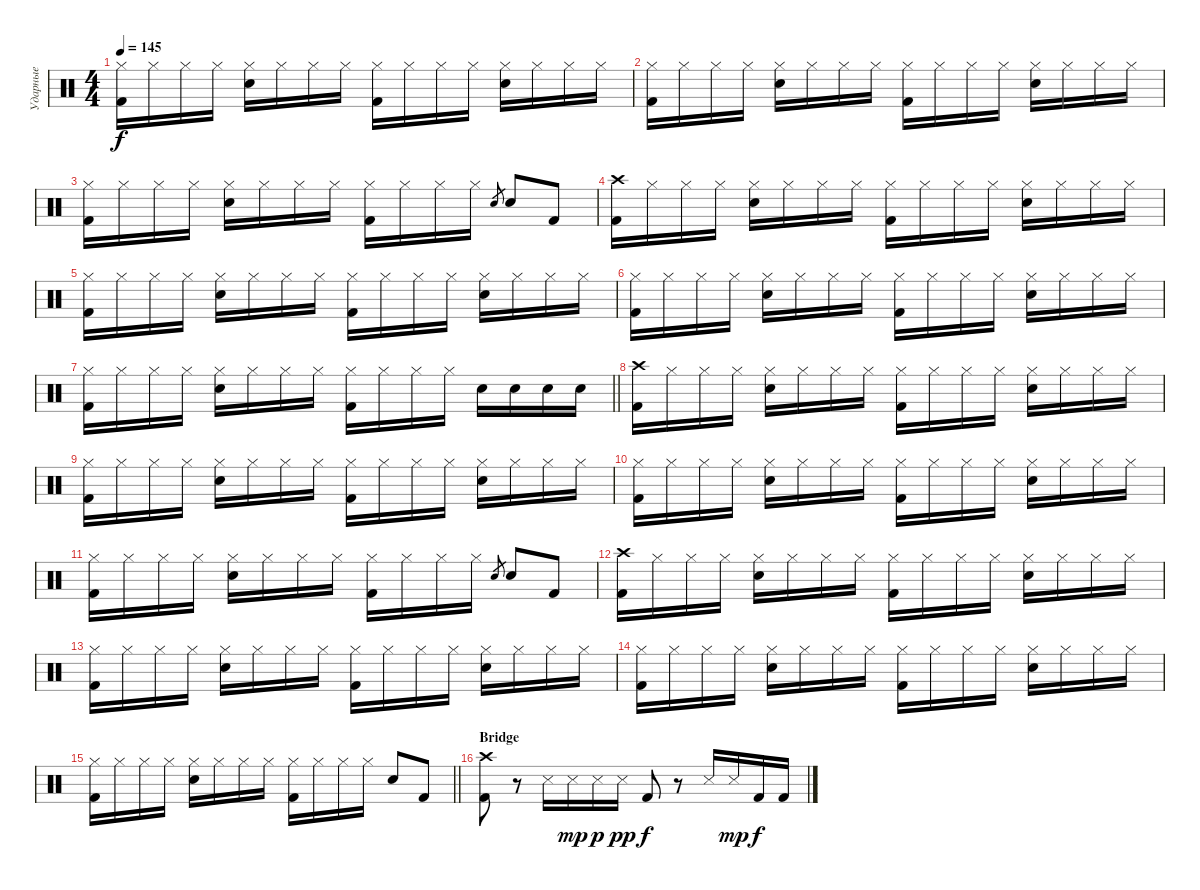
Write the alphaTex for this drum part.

\track ("Ударные" "Ударные") {instrument percussion}
\staff {score}
\articulation defaults
\ts (4 4)
\tempo 145
\clef neutral
\ks c
("Hi-Hat (closed)" "Kick (hit) 2").16{dy f} "Hi-Hat (closed)".16 "Hi-Hat (closed)".16 "Hi-Hat (closed)".16 ("Hi-Hat (closed)" "Electric Snare (hit)").16 "Hi-Hat (closed)".16 "Hi-Hat (closed)".16 "Hi-Hat (closed)".16 ("Hi-Hat (closed)" "Kick (hit) 2").16 "Hi-Hat (closed)".16 "Hi-Hat (closed)".16 "Hi-Hat (closed)".16 ("Hi-Hat (closed)" "Electric Snare (hit)").16 "Hi-Hat (closed)".16 "Hi-Hat (closed)".16 "Hi-Hat (closed)".16 |
("Hi-Hat (closed)" "Kick (hit) 2").16 "Hi-Hat (closed)".16 "Hi-Hat (closed)".16 "Hi-Hat (closed)".16 ("Hi-Hat (closed)" "Electric Snare (hit)").16 "Hi-Hat (closed)".16 "Hi-Hat (closed)".16 "Hi-Hat (closed)".16 ("Hi-Hat (closed)" "Kick (hit) 2").16 "Hi-Hat (closed)".16 "Hi-Hat (closed)".16 "Hi-Hat (closed)".16 ("Hi-Hat (closed)" "Electric Snare (hit)").16 "Hi-Hat (closed)".16 "Hi-Hat (closed)".16 "Hi-Hat (closed)".16 |
("Hi-Hat (closed)" "Kick (hit) 2").16 "Hi-Hat (closed)".16 "Hi-Hat (closed)".16 "Hi-Hat (closed)".16 ("Hi-Hat (closed)" "Electric Snare (hit)").16 "Hi-Hat (closed)".16 "Hi-Hat (closed)".16 "Hi-Hat (closed)".16 ("Hi-Hat (closed)" "Kick (hit) 2").16 "Hi-Hat (closed)".16 "Hi-Hat (closed)".16 "Hi-Hat (closed)".16 "Electric Snare (hit)".8{gr} "Electric Snare (hit)".8 "Kick (hit) 2".8 |
("Crash high (hit)" "Kick (hit) 2").16 "Hi-Hat (closed)".16 "Hi-Hat (closed)".16 "Hi-Hat (closed)".16 ("Hi-Hat (closed)" "Electric Snare (hit)").16 "Hi-Hat (closed)".16 "Hi-Hat (closed)".16 "Hi-Hat (closed)".16 ("Hi-Hat (closed)" "Kick (hit) 2").16 "Hi-Hat (closed)".16 "Hi-Hat (closed)".16 "Hi-Hat (closed)".16 ("Hi-Hat (closed)" "Electric Snare (hit)").16 "Hi-Hat (closed)".16 "Hi-Hat (closed)".16 "Hi-Hat (closed)".16 |
("Hi-Hat (closed)" "Kick (hit) 2").16 "Hi-Hat (closed)".16 "Hi-Hat (closed)".16 "Hi-Hat (closed)".16 ("Hi-Hat (closed)" "Electric Snare (hit)").16 "Hi-Hat (closed)".16 "Hi-Hat (closed)".16 "Hi-Hat (closed)".16 ("Hi-Hat (closed)" "Kick (hit) 2").16 "Hi-Hat (closed)".16 "Hi-Hat (closed)".16 "Hi-Hat (closed)".16 ("Hi-Hat (closed)" "Electric Snare (hit)").16 "Hi-Hat (closed)".16 "Hi-Hat (closed)".16 "Hi-Hat (closed)".16 |
("Hi-Hat (closed)" "Kick (hit) 2").16 "Hi-Hat (closed)".16 "Hi-Hat (closed)".16 "Hi-Hat (closed)".16 ("Hi-Hat (closed)" "Electric Snare (hit)").16 "Hi-Hat (closed)".16 "Hi-Hat (closed)".16 "Hi-Hat (closed)".16 ("Hi-Hat (closed)" "Kick (hit) 2").16 "Hi-Hat (closed)".16 "Hi-Hat (closed)".16 "Hi-Hat (closed)".16 ("Hi-Hat (closed)" "Electric Snare (hit)").16 "Hi-Hat (closed)".16 "Hi-Hat (closed)".16 "Hi-Hat (closed)".16 |
\barLineRight lightlight
("Hi-Hat (closed)" "Kick (hit) 2").16 "Hi-Hat (closed)".16 "Hi-Hat (closed)".16 "Hi-Hat (closed)".16 ("Hi-Hat (closed)" "Electric Snare (hit)").16 "Hi-Hat (closed)".16 "Hi-Hat (closed)".16 "Hi-Hat (closed)".16 ("Hi-Hat (closed)" "Kick (hit) 2").16 "Hi-Hat (closed)".16 "Hi-Hat (closed)".16 "Hi-Hat (closed)".16 "Electric Snare (hit)".16 "Electric Snare (hit)".16 "Electric Snare (hit)".16 "Electric Snare (hit)".16 |
("Crash high (hit)" "Kick (hit) 2").16 "Hi-Hat (closed)".16 "Hi-Hat (closed)".16 "Hi-Hat (closed)".16 ("Hi-Hat (closed)" "Electric Snare (hit)").16 "Hi-Hat (closed)".16 "Hi-Hat (closed)".16 "Hi-Hat (closed)".16 ("Hi-Hat (closed)" "Kick (hit) 2").16 "Hi-Hat (closed)".16 "Hi-Hat (closed)".16 "Hi-Hat (closed)".16 ("Hi-Hat (closed)" "Electric Snare (hit)").16 "Hi-Hat (closed)".16 "Hi-Hat (closed)".16 "Hi-Hat (closed)".16 |
("Hi-Hat (closed)" "Kick (hit) 2").16 "Hi-Hat (closed)".16 "Hi-Hat (closed)".16 "Hi-Hat (closed)".16 ("Hi-Hat (closed)" "Electric Snare (hit)").16 "Hi-Hat (closed)".16 "Hi-Hat (closed)".16 "Hi-Hat (closed)".16 ("Hi-Hat (closed)" "Kick (hit) 2").16 "Hi-Hat (closed)".16 "Hi-Hat (closed)".16 "Hi-Hat (closed)".16 ("Hi-Hat (closed)" "Electric Snare (hit)").16 "Hi-Hat (closed)".16 "Hi-Hat (closed)".16 "Hi-Hat (closed)".16 |
("Hi-Hat (closed)" "Kick (hit) 2").16 "Hi-Hat (closed)".16 "Hi-Hat (closed)".16 "Hi-Hat (closed)".16 ("Hi-Hat (closed)" "Electric Snare (hit)").16 "Hi-Hat (closed)".16 "Hi-Hat (closed)".16 "Hi-Hat (closed)".16 ("Hi-Hat (closed)" "Kick (hit) 2").16 "Hi-Hat (closed)".16 "Hi-Hat (closed)".16 "Hi-Hat (closed)".16 ("Hi-Hat (closed)" "Electric Snare (hit)").16 "Hi-Hat (closed)".16 "Hi-Hat (closed)".16 "Hi-Hat (closed)".16 |
("Hi-Hat (closed)" "Kick (hit) 2").16 "Hi-Hat (closed)".16 "Hi-Hat (closed)".16 "Hi-Hat (closed)".16 ("Hi-Hat (closed)" "Electric Snare (hit)").16 "Hi-Hat (closed)".16 "Hi-Hat (closed)".16 "Hi-Hat (closed)".16 ("Hi-Hat (closed)" "Kick (hit) 2").16 "Hi-Hat (closed)".16 "Hi-Hat (closed)".16 "Hi-Hat (closed)".16 "Electric Snare (hit)".8{gr} "Electric Snare (hit)".8 "Kick (hit) 2".8 |
("Crash high (hit)" "Kick (hit) 2").16 "Hi-Hat (closed)".16 "Hi-Hat (closed)".16 "Hi-Hat (closed)".16 ("Hi-Hat (closed)" "Electric Snare (hit)").16 "Hi-Hat (closed)".16 "Hi-Hat (closed)".16 "Hi-Hat (closed)".16 ("Hi-Hat (closed)" "Kick (hit) 2").16 "Hi-Hat (closed)".16 "Hi-Hat (closed)".16 "Hi-Hat (closed)".16 ("Hi-Hat (closed)" "Electric Snare (hit)").16 "Hi-Hat (closed)".16 "Hi-Hat (closed)".16 "Hi-Hat (closed)".16 |
("Hi-Hat (closed)" "Kick (hit) 2").16 "Hi-Hat (closed)".16 "Hi-Hat (closed)".16 "Hi-Hat (closed)".16 ("Hi-Hat (closed)" "Electric Snare (hit)").16 "Hi-Hat (closed)".16 "Hi-Hat (closed)".16 "Hi-Hat (closed)".16 ("Hi-Hat (closed)" "Kick (hit) 2").16 "Hi-Hat (closed)".16 "Hi-Hat (closed)".16 "Hi-Hat (closed)".16 ("Hi-Hat (closed)" "Electric Snare (hit)").16 "Hi-Hat (closed)".16 "Hi-Hat (closed)".16 "Hi-Hat (closed)".16 |
("Hi-Hat (closed)" "Kick (hit) 2").16 "Hi-Hat (closed)".16 "Hi-Hat (closed)".16 "Hi-Hat (closed)".16 ("Hi-Hat (closed)" "Electric Snare (hit)").16 "Hi-Hat (closed)".16 "Hi-Hat (closed)".16 "Hi-Hat (closed)".16 ("Hi-Hat (closed)" "Kick (hit) 2").16 "Hi-Hat (closed)".16 "Hi-Hat (closed)".16 "Hi-Hat (closed)".16 ("Hi-Hat (closed)" "Electric Snare (hit)").16 "Hi-Hat (closed)".16 "Hi-Hat (closed)".16 "Hi-Hat (closed)".16 |
\barLineRight lightlight
("Hi-Hat (closed)" "Kick (hit) 2").16 "Hi-Hat (closed)".16 "Hi-Hat (closed)".16 "Hi-Hat (closed)".16 ("Hi-Hat (closed)" "Electric Snare (hit)").16 "Hi-Hat (closed)".16 "Hi-Hat (closed)".16 "Hi-Hat (closed)".16 ("Hi-Hat (closed)" "Kick (hit) 2").16 "Hi-Hat (closed)".16 "Hi-Hat (closed)".16 "Hi-Hat (closed)".16 "Electric Snare (hit)".8 "Kick (hit) 2".8 |
\section ("" "Bridge")
("Crash high (hit)" "Kick (hit) 2").8 r.8 "Snare (side stick) 3".16 "Snare (side stick) 3".16{dy mp} "Snare (side stick) 3".16{dy p} "Snare (side stick) 3".16{dy pp} "Kick (hit) 2".8{dy f} r.8 "Snare (side stick) 3".16 "Snare (side stick) 3".16{dy mp} "Kick (hit) 2".16{dy f} "Kick (hit) 2".16
